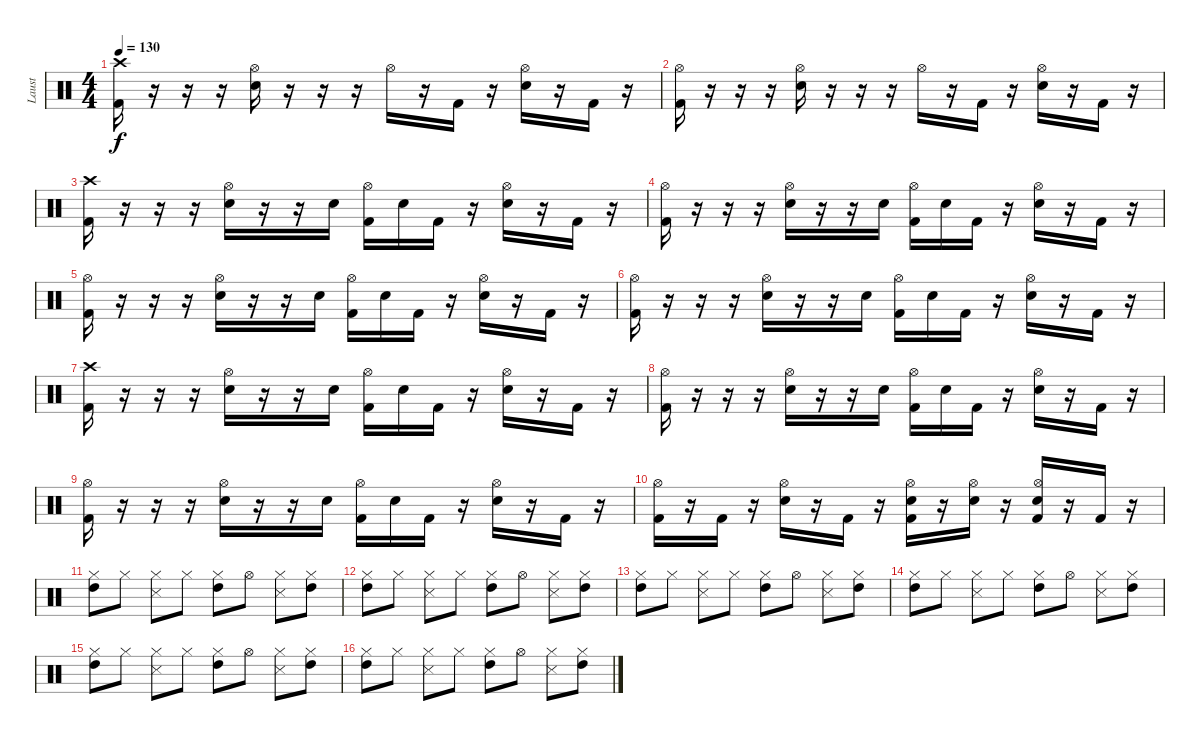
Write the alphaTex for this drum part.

\track ("Laust" "Laust") {instrument percussion}
\staff {score}
\articulation defaults
\ts (4 4)
\tempo 130
\clef neutral
\ks c
("Crash high (hit)" "Kick (hit) 2").16{dy f} r.16 r.16 r.16 ("Hi-Hat (open)" "Snare (hit) 2").16 r.16 r.16 r.16 "Hi-Hat (open)".16 r.16 "Kick (hit) 2".16 r.16 ("Hi-Hat (open)" "Snare (hit) 2").16 r.16 "Kick (hit) 2".16 r.16 |
("Hi-Hat (open)" "Kick (hit) 2").16 r.16 r.16 r.16 ("Hi-Hat (open)" "Snare (hit) 2").16 r.16 r.16 r.16 "Hi-Hat (open)".16 r.16 "Kick (hit) 2".16 r.16 ("Hi-Hat (open)" "Snare (hit) 2").16 r.16 "Kick (hit) 2".16 r.16 |
("Crash high (hit)" "Kick (hit) 2").16 r.16 r.16 r.16 ("Hi-Hat (open)" "Snare (hit) 2").16 r.16 r.16 "Snare (hit) 2".16 ("Hi-Hat (open)" "Kick (hit) 2").16 "Snare (hit) 2".16 "Kick (hit) 2".16 r.16 ("Hi-Hat (open)" "Snare (hit) 2").16 r.16 "Kick (hit) 2".16 r.16 |
("Hi-Hat (open)" "Kick (hit) 2").16 r.16 r.16 r.16 ("Hi-Hat (open)" "Snare (hit) 2").16 r.16 r.16 "Snare (hit) 2".16 ("Hi-Hat (open)" "Kick (hit) 2").16 "Snare (hit) 2".16 "Kick (hit) 2".16 r.16 ("Hi-Hat (open)" "Snare (hit) 2").16 r.16 "Kick (hit) 2".16 r.16 |
("Hi-Hat (open)" "Kick (hit) 2").16 r.16 r.16 r.16 ("Hi-Hat (open)" "Snare (hit) 2").16 r.16 r.16 "Snare (hit) 2".16 ("Hi-Hat (open)" "Kick (hit) 2").16 "Snare (hit) 2".16 "Kick (hit) 2".16 r.16 ("Hi-Hat (open)" "Snare (hit) 2").16 r.16 "Kick (hit) 2".16 r.16 |
("Hi-Hat (open)" "Kick (hit) 2").16 r.16 r.16 r.16 ("Hi-Hat (open)" "Snare (hit) 2").16 r.16 r.16 "Snare (hit) 2".16 ("Hi-Hat (open)" "Kick (hit) 2").16 "Snare (hit) 2".16 "Kick (hit) 2".16 r.16 ("Hi-Hat (open)" "Snare (hit) 2").16 r.16 "Kick (hit) 2".16 r.16 |
("Crash high (hit)" "Kick (hit) 2").16 r.16 r.16 r.16 ("Hi-Hat (open)" "Snare (hit) 2").16 r.16 r.16 "Snare (hit) 2".16 ("Hi-Hat (open)" "Kick (hit) 2").16 "Snare (hit) 2".16 "Kick (hit) 2".16 r.16 ("Hi-Hat (open)" "Snare (hit) 2").16 r.16 "Kick (hit) 2".16 r.16 |
("Hi-Hat (open)" "Kick (hit) 2").16 r.16 r.16 r.16 ("Hi-Hat (open)" "Snare (hit) 2").16 r.16 r.16 "Snare (hit) 2".16 ("Hi-Hat (open)" "Kick (hit) 2").16 "Snare (hit) 2".16 "Kick (hit) 2".16 r.16 ("Hi-Hat (open)" "Snare (hit) 2").16 r.16 "Kick (hit) 2".16 r.16 |
("Hi-Hat (open)" "Kick (hit) 2").16 r.16 r.16 r.16 ("Hi-Hat (open)" "Snare (hit) 2").16 r.16 r.16 "Snare (hit) 2".16 ("Hi-Hat (open)" "Kick (hit) 2").16 "Snare (hit) 2".16 "Kick (hit) 2".16 r.16 ("Hi-Hat (open)" "Snare (hit) 2").16 r.16 "Kick (hit) 2".16 r.16 |
("Hi-Hat (open)" "Kick (hit) 2").16 r.16 "Kick (hit) 2".16 r.16 ("Hi-Hat (open)" "Snare (hit) 2").16 r.16 "Kick (hit) 2".16 r.16 ("Hi-Hat (open)" "Snare (hit) 2" "Kick (hit) 2").16 r.16 ("Hi-Hat (open)" "Snare (hit) 2").16 r.16 ("Hi-Hat (open)" "Snare (hit) 2" "Kick (hit) 2").16 r.16 "Kick (hit) 2".16 r.16 |
("Hi-Hat (closed)" "High Tom (hit)").8 "Hi-Hat (closed)".8 ("Hi-Hat (closed)" "Snare (side stick) 3").8 "Hi-Hat (closed)".8 ("Hi-Hat (closed)" "High Tom (hit)").8 "Hi-Hat (open)".8 ("Hi-Hat (closed)" "Snare (side stick) 3").8 ("Hi-Hat (closed)" "High Tom (hit)").8 |
("Hi-Hat (closed)" "High Tom (hit)").8 "Hi-Hat (closed)".8 ("Hi-Hat (closed)" "Snare (side stick) 3").8 "Hi-Hat (closed)".8 ("Hi-Hat (closed)" "High Tom (hit)").8 "Hi-Hat (open)".8 ("Hi-Hat (closed)" "Snare (side stick) 3").8 ("Hi-Hat (closed)" "High Tom (hit)").8 |
("Hi-Hat (closed)" "High Tom (hit)").8 "Hi-Hat (closed)".8 ("Hi-Hat (closed)" "Snare (side stick) 3").8 "Hi-Hat (closed)".8 ("Hi-Hat (closed)" "High Tom (hit)").8 "Hi-Hat (open)".8 ("Hi-Hat (closed)" "Snare (side stick) 3").8 ("Hi-Hat (closed)" "High Tom (hit)").8 |
("Hi-Hat (closed)" "High Tom (hit)").8 "Hi-Hat (closed)".8 ("Hi-Hat (closed)" "Snare (side stick) 3").8 "Hi-Hat (closed)".8 ("Hi-Hat (closed)" "High Tom (hit)").8 "Hi-Hat (open)".8 ("Hi-Hat (closed)" "Snare (side stick) 3").8 ("Hi-Hat (closed)" "High Tom (hit)").8 |
("Hi-Hat (closed)" "High Tom (hit)").8 "Hi-Hat (closed)".8 ("Hi-Hat (closed)" "Snare (side stick) 3").8 "Hi-Hat (closed)".8 ("Hi-Hat (closed)" "High Tom (hit)").8 "Hi-Hat (open)".8 ("Hi-Hat (closed)" "Snare (side stick) 3").8 ("Hi-Hat (closed)" "High Tom (hit)").8 |
("Hi-Hat (closed)" "High Tom (hit)").8 "Hi-Hat (closed)".8 ("Hi-Hat (closed)" "Snare (side stick) 3").8 "Hi-Hat (closed)".8 ("Hi-Hat (closed)" "High Tom (hit)").8 "Hi-Hat (open)".8 ("Hi-Hat (closed)" "Snare (side stick) 3").8 ("Hi-Hat (closed)" "High Tom (hit)").8
